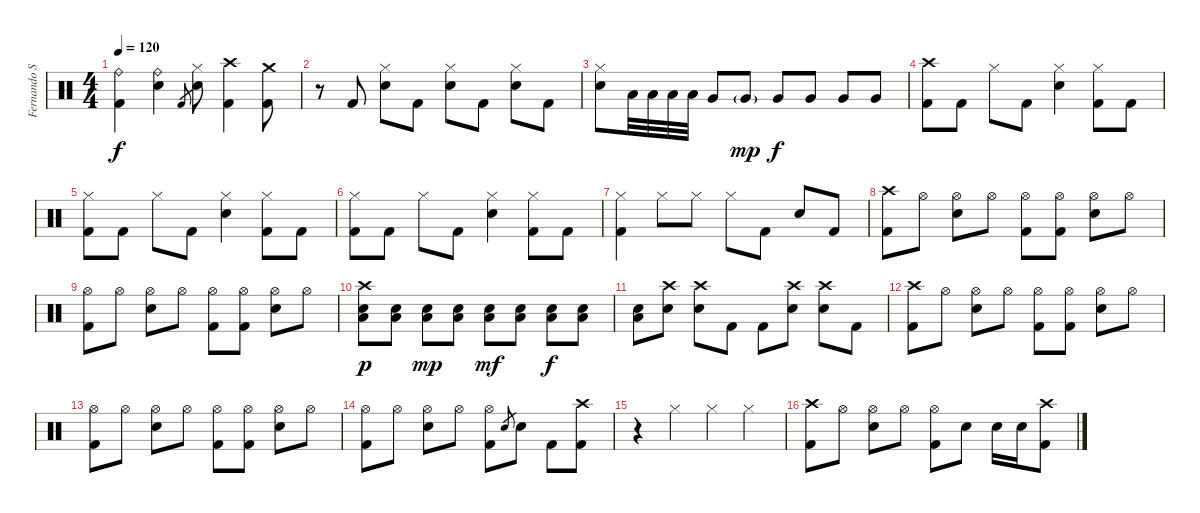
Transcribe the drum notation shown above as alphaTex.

\track ("Fernando Scarcella" "Fernando S") {instrument percussion}
\staff {score}
\articulation defaults
\ts (4 4)
\tempo 120
\clef neutral
\ks c
("Ride (bell)" "Kick (hit) 2").4{dy f} ("Ride (bell)" "Snare (hit) 2").4 "Kick (hit) 2".8{gr} ("Hi-Hat (closed)" "Snare (hit) 2").8 ("Crash high (hit)" "Kick (hit) 2").4 ("Crash medium (hit)" "Kick (hit) 2").8 |
r.8 "Kick (hit) 2".8 ("Snare (hit) 2" "Hi-Hat (closed)").8 "Kick (hit) 2".8 ("Snare (hit) 2" "Hi-Hat (closed)").8 "Kick (hit) 2".8 ("Snare (hit) 2" "Hi-Hat (closed)").8 "Kick (hit) 2".8 |
("Snare (hit) 2" "Hi-Hat (closed)").8 "Low Tom (hit)".32 "Low Tom (hit)".32 "Low Tom (hit)".32 "Low Tom (hit)".32 "Very Low Tom (hit)".8 "Very Low Tom (hit)"{g}.8{dy mp} "Very Low Tom (hit)".8{dy f} "Very Low Tom (hit)".8 "Very Low Tom (hit)".8 "Very Low Tom (hit)".8 |
("Crash high (hit)" "Kick (hit) 2").8 "Kick (hit) 2".8 "Hi-Hat (closed)".8 "Kick (hit) 2".8 ("Hi-Hat (closed)" "Snare (hit) 2").4 ("Hi-Hat (closed)" "Kick (hit) 2").8 "Kick (hit) 2".8 |
("Hi-Hat (closed)" "Kick (hit) 2").8 "Kick (hit) 2".8 "Hi-Hat (closed)".8 "Kick (hit) 2".8 ("Hi-Hat (closed)" "Snare (hit) 2").4 ("Hi-Hat (closed)" "Kick (hit) 2").8 "Kick (hit) 2".8 |
("Hi-Hat (closed)" "Kick (hit) 2").8 "Kick (hit) 2".8 "Hi-Hat (closed)".8 "Kick (hit) 2".8 ("Hi-Hat (closed)" "Snare (hit) 2").4 ("Hi-Hat (closed)" "Kick (hit) 2").8 "Kick (hit) 2".8 |
("Hi-Hat (closed)" "Kick (hit) 2").4 "Hi-Hat (closed)".8 "Hi-Hat (closed)".8 "Hi-Hat (closed)".8 "Kick (hit) 2".8 "Snare (hit) 2".8 "Kick (hit) 2".8 |
("Crash high (hit)" "Kick (hit) 2").8 "Hi-Hat (open)".8 ("Hi-Hat (open)" "Snare (hit) 2").8 "Hi-Hat (open)".8 ("Hi-Hat (open)" "Kick (hit) 2").8 ("Hi-Hat (open)" "Kick (hit) 2").8 ("Hi-Hat (open)" "Snare (hit) 2").8 "Hi-Hat (open)".8 |
("Hi-Hat (open)" "Kick (hit) 2").8 "Hi-Hat (open)".8 ("Hi-Hat (open)" "Snare (hit) 2").8 "Hi-Hat (open)".8 ("Hi-Hat (open)" "Kick (hit) 2").8 ("Hi-Hat (open)" "Kick (hit) 2").8 ("Hi-Hat (open)" "Snare (hit) 2").8 "Hi-Hat (open)".8 |
("Crash high (hit)" "Low Tom (hit)" "Snare (hit) 2").8{dy p} ("Low Tom (hit)" "Snare (hit) 2").8 ("Low Tom (hit)" "Snare (hit) 2").8{dy mp} ("Low Tom (hit)" "Snare (hit) 2").8 ("Low Tom (hit)" "Snare (hit) 2").8{dy mf} ("Low Tom (hit)" "Snare (hit) 2").8 ("Low Tom (hit)" "Snare (hit) 2").8{dy f} ("Low Tom (hit)" "Snare (hit) 2").8 |
("Low Tom (hit)" "Snare (hit) 2").8 ("Crash high (hit)" "Snare (hit) 2").8 ("Crash high (hit)" "Snare (hit) 2").8 "Kick (hit) 2".8 "Kick (hit) 2".8 ("Crash high (hit)" "Snare (hit) 2").8 ("Crash high (hit)" "Snare (hit) 2").8 "Kick (hit) 2".8 |
("Crash high (hit)" "Kick (hit) 2").8 "Hi-Hat (open)".8 ("Hi-Hat (open)" "Snare (hit) 2").8 "Hi-Hat (open)".8 ("Hi-Hat (open)" "Kick (hit) 2").8 ("Hi-Hat (open)" "Kick (hit) 2").8 ("Hi-Hat (open)" "Snare (hit) 2").8 "Hi-Hat (open)".8 |
("Hi-Hat (open)" "Kick (hit) 2").8 "Hi-Hat (open)".8 ("Hi-Hat (open)" "Snare (hit) 2").8 "Hi-Hat (open)".8 ("Hi-Hat (open)" "Kick (hit) 2").8 ("Hi-Hat (open)" "Kick (hit) 2").8 ("Hi-Hat (open)" "Snare (hit) 2").8 "Hi-Hat (open)".8 |
("Hi-Hat (open)" "Kick (hit) 2").8 "Hi-Hat (open)".8 ("Hi-Hat (open)" "Snare (hit) 2").8 "Hi-Hat (open)".8 ("Hi-Hat (open)" "Kick (hit) 2").8 "Snare (hit) 2".8{gr} "Snare (hit) 2".8 "Kick (hit) 2".8 ("Crash high (hit)" "Kick (hit) 2").8 |
r.4 "Hi-Hat (closed)".4 "Hi-Hat (closed)".4 "Hi-Hat (closed)".4 |
("Crash high (hit)" "Kick (hit) 2").8 "Hi-Hat (open)".8 ("Hi-Hat (open)" "Snare (hit) 2").8 "Hi-Hat (open)".8 ("Hi-Hat (open)" "Kick (hit) 2").8 "Snare (hit) 2".8 "Snare (hit) 2".16 "Snare (hit) 2".16 ("Crash high (hit)" "Kick (hit) 2").8
